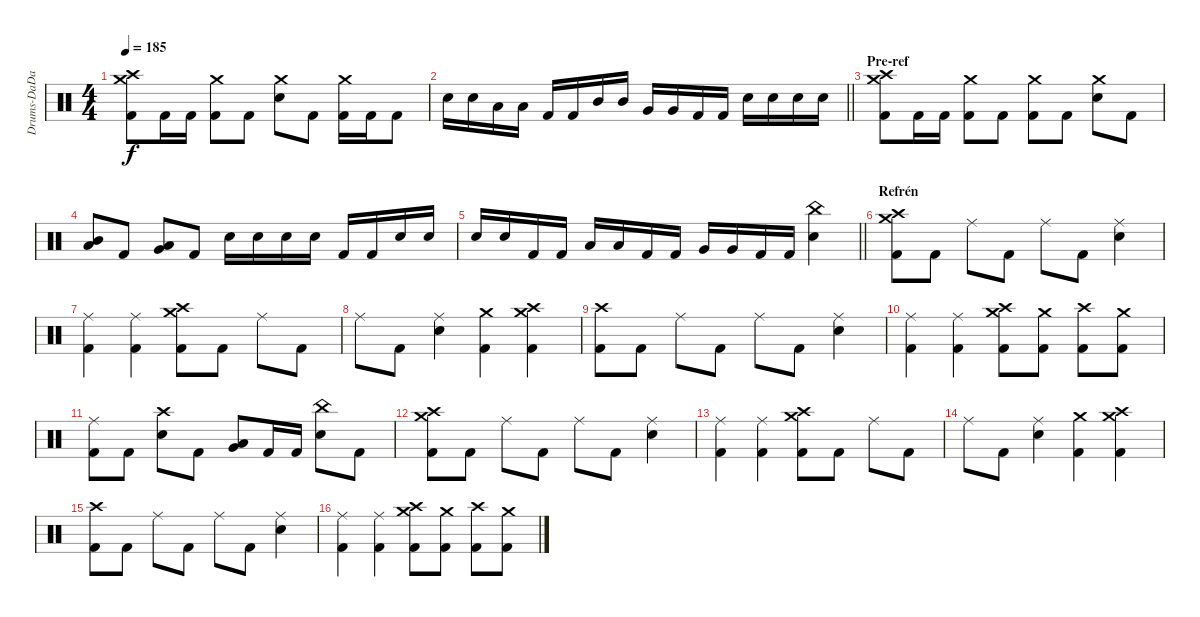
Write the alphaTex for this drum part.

\track ("Drums-DaDa" "Drums-DaDa") {instrument percussion}
\staff {score}
\articulation defaults
\ts (4 4)
\tempo 185
\clef neutral
\ks c
("Crash high (hit)" "Crash medium (hit)" "Kick (hit) 2").8{dy f} "Kick (hit) 2".16 "Kick (hit) 2".16 ("Crash medium (hit)" "Kick (hit) 2").8 "Kick (hit) 2".8 ("Crash medium (hit)" "Electric Snare (hit)").8 "Kick (hit) 2".8 ("Crash medium (hit)" "Kick (hit) 2").16 "Kick (hit) 2".16 "Kick (hit) 2".8 |
\barLineRight lightlight "Electric Snare (hit)".16 "Electric Snare (hit)".16 "Low Tom (hit)".16 "Low Tom (hit)".16 "Kick (hit) 2".16 "Kick (hit) 2".16 "Mid Tom (hit)".16 "Mid Tom (hit)".16 "Very Low Tom (hit)".16 "Very Low Tom (hit)".16 "Kick (hit) 2".16 "Kick (hit) 2".16 "Electric Snare (hit)".16 "Electric Snare (hit)".16 "Electric Snare (hit)".16 "Electric Snare (hit)".16
|
\section ("" "Pre-ref")
("Crash medium (hit)" "Crash high (hit)" "Kick (hit) 2").8 "Kick (hit) 2".16 "Kick (hit) 2".16 ("Crash medium (hit)" "Kick (hit) 2").8 "Kick (hit) 2".8 ("Crash medium (hit)" "Kick (hit) 2").8 "Kick (hit) 2".8 ("Crash medium (hit)" "Electric Snare (hit)").8 "Kick (hit) 2".8 |
("Mid Tom (hit)" "Low Tom (hit)").8 "Kick (hit) 2".8 ("Low Tom (hit)" "Very Low Tom (hit)").8 "Kick (hit) 2".8 "Electric Snare (hit)".16 "Electric Snare (hit)".16 "Electric Snare (hit)".16 "Electric Snare (hit)".16 "Kick (hit) 2".16 "Kick (hit) 2".16 "Electric Snare (hit)".16 "Electric Snare (hit)".16 |
\barLineRight lightlight "Electric Snare (hit)".16 "Electric Snare (hit)".16 "Kick (hit) 2".16 "Kick (hit) 2".16 "Low Tom (hit)".16 "Low Tom (hit)".16 "Kick (hit) 2".16 "Kick (hit) 2".16 "Very Low Tom (hit)".16 "Very Low Tom (hit)".16 "Kick (hit) 2".16 "Kick (hit) 2".16
("China (hit)" "Electric Snare (hit)").4 |
\section ("" "Refrén")
("Crash medium (hit)" "Crash high (hit)" "Kick (hit) 2").8 "Kick (hit) 2".8 "Ride (middle)".8 "Kick (hit) 2".8 "Ride (middle)".8 "Kick (hit) 2".8 ("Ride (middle)" "Electric Snare (hit)").4 |
("Ride (middle)" "Kick (hit) 2").4 ("Ride (middle)" "Kick (hit) 2").4 ("Crash medium (hit)" "Crash high (hit)" "Kick (hit) 2").8 "Kick (hit) 2".8 "Ride (middle)".8 "Kick (hit) 2".8 |
"Ride (middle)".8 "Kick (hit) 2".8 ("Ride (middle)" "Electric Snare (hit)").4 ("Crash medium (hit)" "Kick (hit) 2").4 ("Crash medium (hit)" "Crash high (hit)" "Kick (hit) 2").4 |
("Crash high (hit)" "Kick (hit) 2").8 "Kick (hit) 2".8 "Ride (middle)".8 "Kick (hit) 2".8 "Ride (middle)".8 "Kick (hit) 2".8 ("Ride (middle)" "Electric Snare (hit)").4 |
("Ride (middle)" "Kick (hit) 2").4 ("Ride (middle)" "Kick (hit) 2").4 ("Crash medium (hit)" "Crash high (hit)" "Kick (hit) 2").8 ("Crash medium (hit)" "Kick (hit) 2").8 ("Crash high (hit)" "Kick (hit) 2").8 ("Crash medium (hit)" "Kick (hit) 2").8 |
("Ride (middle)" "Kick (hit) 2").8 "Kick (hit) 2".8 ("Crash high (hit)" "Electric Snare (hit)").8 "Kick (hit) 2".8 ("Low Tom (hit)" "Very Low Tom (hit)").8 "Kick (hit) 2".16 "Kick (hit) 2".16 ("China (hit)" "Electric Snare (hit)").8 "Kick (hit) 2".8 |
("Crash medium (hit)" "Crash high (hit)" "Kick (hit) 2").8 "Kick (hit) 2".8 "Ride (middle)".8 "Kick (hit) 2".8 "Ride (middle)".8 "Kick (hit) 2".8 ("Ride (middle)" "Electric Snare (hit)").4 |
("Ride (middle)" "Kick (hit) 2").4 ("Ride (middle)" "Kick (hit) 2").4 ("Crash medium (hit)" "Crash high (hit)" "Kick (hit) 2").8 "Kick (hit) 2".8 "Ride (middle)".8 "Kick (hit) 2".8 |
"Ride (middle)".8 "Kick (hit) 2".8 ("Ride (middle)" "Electric Snare (hit)").4 ("Crash medium (hit)" "Kick (hit) 2").4 ("Crash medium (hit)" "Crash high (hit)" "Kick (hit) 2").4 |
("Crash high (hit)" "Kick (hit) 2").8 "Kick (hit) 2".8 "Ride (middle)".8 "Kick (hit) 2".8 "Ride (middle)".8 "Kick (hit) 2".8 ("Ride (middle)" "Electric Snare (hit)").4 |
("Ride (middle)" "Kick (hit) 2").4 ("Ride (middle)" "Kick (hit) 2").4 ("Crash medium (hit)" "Crash high (hit)" "Kick (hit) 2").8 ("Crash medium (hit)" "Kick (hit) 2").8 ("Crash high (hit)" "Kick (hit) 2").8 ("Crash medium (hit)" "Kick (hit) 2").8
